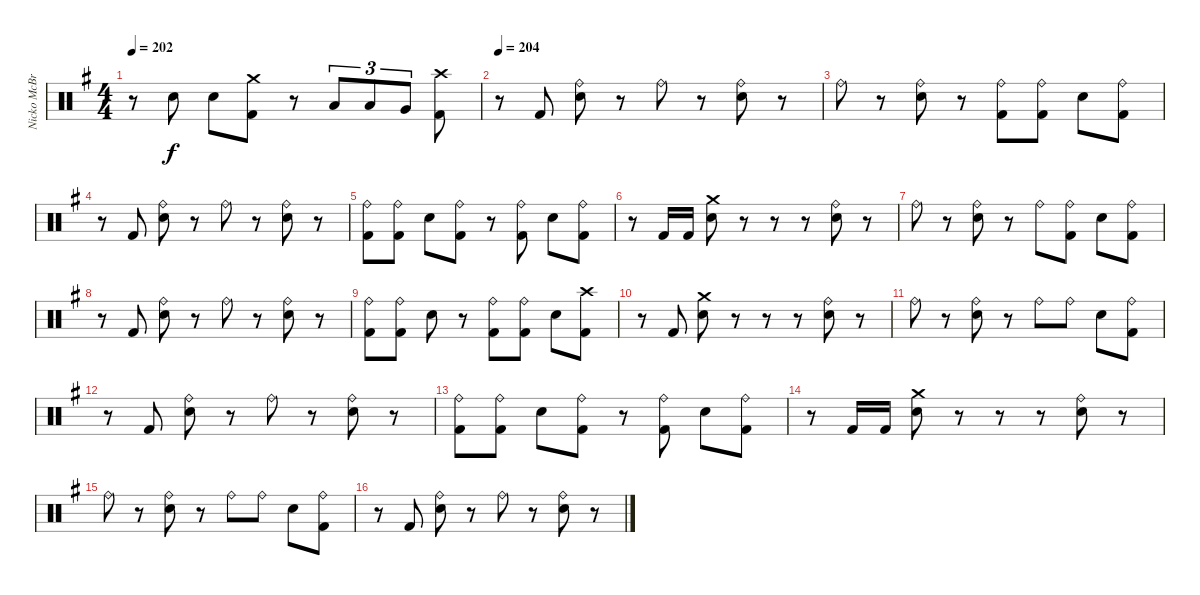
\track ("Nicko McBrain (Drums)" "Nicko McBr") {instrument percussion}
\staff {score}
\articulation defaults
\ts (4 4)
\tempo 202
\clef neutral
\ks eminor
r.8{dy f} "Snare (hit) 2".8 "Snare (hit) 2".8 ("Crash medium (hit)" "Kick (hit) 2").8 r.8 "Low Tom (hit)".8{tu (3 2)} "Low Tom (hit)".8{tu (3 2)} "Very Low Tom (hit)".8{tu (3 2)} ("Crash high (hit)" "Kick (hit) 2").8 |
\tempo 204
r.8 "Kick (hit) 2".8 ("Ride (bell)" "Snare (hit) 2").8 r.8 "Ride (bell)".8 r.8 ("Ride (bell)" "Snare (hit) 2").8 r.8 |
"Ride (bell)".8 r.8 ("Ride (bell)" "Snare (hit) 2").8 r.8 ("Ride (bell)" "Kick (hit) 2").8 ("Ride (bell)" "Kick (hit) 2").8 "Snare (hit) 2".8 ("Ride (bell)" "Kick (hit) 2").8 |
r.8 "Kick (hit) 2".8 ("Ride (bell)" "Snare (hit) 2").8 r.8 "Ride (bell)".8 r.8 ("Ride (bell)" "Snare (hit) 2").8 r.8 |
("Ride (bell)" "Kick (hit) 2").8 ("Ride (bell)" "Kick (hit) 2").8 "Snare (hit) 2".8 ("Ride (bell)" "Kick (hit) 2").8 r.8 ("Ride (bell)" "Kick (hit) 2").8 "Snare (hit) 2".8 ("Ride (bell)" "Kick (hit) 2").8 |
r.8 "Kick (hit) 2".16 "Kick (hit) 2".16 ("Crash medium (hit)" "Snare (hit) 2").8 r.8 r.8 r.8 ("Ride (bell)" "Snare (hit) 2").8 r.8 |
"Ride (bell)".8 r.8 ("Ride (bell)" "Snare (hit) 2").8 r.8 "Ride (bell)".8 ("Ride (bell)" "Kick (hit) 2").8 "Snare (hit) 2".8 ("Ride (bell)" "Kick (hit) 2").8 |
r.8 "Kick (hit) 2".8 ("Ride (bell)" "Snare (hit) 2").8 r.8 "Ride (bell)".8 r.8 ("Ride (bell)" "Snare (hit) 2").8 r.8 |
("Ride (bell)" "Kick (hit) 2").8 ("Ride (bell)" "Kick (hit) 2").8 "Snare (hit) 2".8 r.8 ("Ride (bell)" "Kick (hit) 2").8 ("Ride (bell)" "Kick (hit) 2").8 "Snare (hit) 2".8 ("Crash high (hit)" "Kick (hit) 2").8 |
r.8 "Kick (hit) 2".8 ("Crash medium (hit)" "Snare (hit) 2").8 r.8 r.8 r.8 ("Ride (bell)" "Snare (hit) 2").8 r.8 |
"Ride (bell)".8 r.8 ("Ride (bell)" "Snare (hit) 2").8 r.8 "Ride (bell)".8 "Ride (bell)".8 "Snare (hit) 2".8 ("Ride (bell)" "Kick (hit) 2").8 |
r.8 "Kick (hit) 2".8 ("Ride (bell)" "Snare (hit) 2").8 r.8 "Ride (bell)".8 r.8 ("Ride (bell)" "Snare (hit) 2").8 r.8 |
("Ride (bell)" "Kick (hit) 2").8 ("Ride (bell)" "Kick (hit) 2").8 "Snare (hit) 2".8 ("Ride (bell)" "Kick (hit) 2").8 r.8 ("Ride (bell)" "Kick (hit) 2").8 "Snare (hit) 2".8 ("Ride (bell)" "Kick (hit) 2").8 |
r.8 "Kick (hit) 2".16 "Kick (hit) 2".16 ("Crash medium (hit)" "Snare (hit) 2").8 r.8 r.8 r.8 ("Ride (bell)" "Snare (hit) 2").8 r.8 |
"Ride (bell)".8 r.8 ("Ride (bell)" "Snare (hit) 2").8 r.8 "Ride (bell)".8 "Ride (bell)".8 "Snare (hit) 2".8 ("Ride (bell)" "Kick (hit) 2").8 |
r.8 "Kick (hit) 2".8 ("Ride (bell)" "Snare (hit) 2").8 r.8 "Ride (bell)".8 r.8 ("Ride (bell)" "Snare (hit) 2").8 r.8
